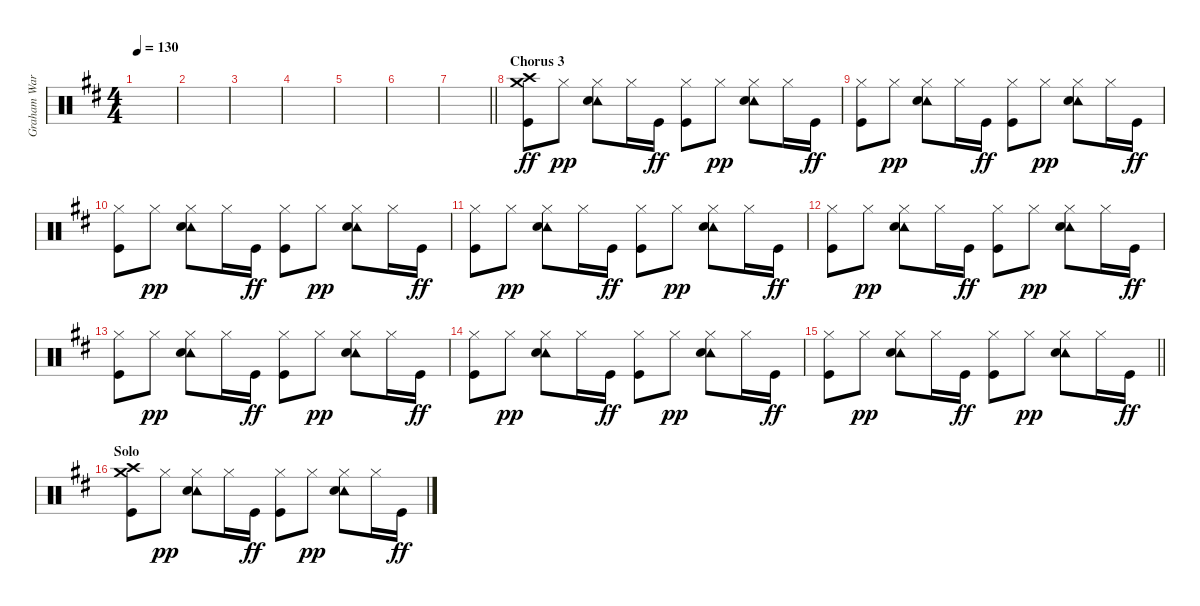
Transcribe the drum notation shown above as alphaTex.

\track ("Graham Ward (DRUMS)" "Graham War") {instrument percussion}
\staff {score}
\articulation defaults
\ts (4 4)
\tempo 130
\clef neutral
\ks d
|
|
|
|
|
|
\barLineRight lightlight
|
\section ("" "Chorus 3")
("Crash medium (hit)" "Crash high (hit)" "Kick (hit)").8{dy ff} "Hi-Hat (closed)".8{dy pp} ("Tambourine (hit)" "Snare (hit) 2" "Hi-Hat (closed)").8 "Hi-Hat (closed)".16 "Kick (hit)".16{dy ff} ("Hi-Hat (closed)" "Kick (hit)").8 "Hi-Hat (closed)".8{dy pp} ("Tambourine (hit)" "Snare (hit) 2" "Hi-Hat (closed)").8 "Hi-Hat (closed)".16 "Kick (hit)".16{dy ff} |
("Hi-Hat (closed)" "Kick (hit)").8 "Hi-Hat (closed)".8{dy pp} ("Tambourine (hit)" "Snare (hit) 2" "Hi-Hat (closed)").8 "Hi-Hat (closed)".16 "Kick (hit)".16{dy ff} ("Hi-Hat (closed)" "Kick (hit)").8 "Hi-Hat (closed)".8{dy pp} ("Tambourine (hit)" "Snare (hit) 2" "Hi-Hat (closed)").8 "Hi-Hat (closed)".16 "Kick (hit)".16{dy ff} |
("Hi-Hat (closed)" "Kick (hit)").8 "Hi-Hat (closed)".8{dy pp} ("Tambourine (hit)" "Snare (hit) 2" "Hi-Hat (closed)").8 "Hi-Hat (closed)".16 "Kick (hit)".16{dy ff} ("Hi-Hat (closed)" "Kick (hit)").8 "Hi-Hat (closed)".8{dy pp} ("Tambourine (hit)" "Snare (hit) 2" "Hi-Hat (closed)").8 "Hi-Hat (closed)".16 "Kick (hit)".16{dy ff} |
("Hi-Hat (closed)" "Kick (hit)").8 "Hi-Hat (closed)".8{dy pp} ("Tambourine (hit)" "Snare (hit) 2" "Hi-Hat (closed)").8 "Hi-Hat (closed)".16 "Kick (hit)".16{dy ff} ("Hi-Hat (closed)" "Kick (hit)").8 "Hi-Hat (closed)".8{dy pp} ("Tambourine (hit)" "Snare (hit) 2" "Hi-Hat (closed)").8 "Hi-Hat (closed)".16 "Kick (hit)".16{dy ff} |
("Hi-Hat (closed)" "Kick (hit)").8 "Hi-Hat (closed)".8{dy pp} ("Tambourine (hit)" "Snare (hit) 2" "Hi-Hat (closed)").8 "Hi-Hat (closed)".16 "Kick (hit)".16{dy ff} ("Hi-Hat (closed)" "Kick (hit)").8 "Hi-Hat (closed)".8{dy pp} ("Tambourine (hit)" "Snare (hit) 2" "Hi-Hat (closed)").8 "Hi-Hat (closed)".16 "Kick (hit)".16{dy ff} |
("Hi-Hat (closed)" "Kick (hit)").8 "Hi-Hat (closed)".8{dy pp} ("Tambourine (hit)" "Snare (hit) 2" "Hi-Hat (closed)").8 "Hi-Hat (closed)".16 "Kick (hit)".16{dy ff} ("Hi-Hat (closed)" "Kick (hit)").8 "Hi-Hat (closed)".8{dy pp} ("Tambourine (hit)" "Snare (hit) 2" "Hi-Hat (closed)").8 "Hi-Hat (closed)".16 "Kick (hit)".16{dy ff} |
("Hi-Hat (closed)" "Kick (hit)").8 "Hi-Hat (closed)".8{dy pp} ("Tambourine (hit)" "Snare (hit) 2" "Hi-Hat (closed)").8 "Hi-Hat (closed)".16 "Kick (hit)".16{dy ff} ("Hi-Hat (closed)" "Kick (hit)").8 "Hi-Hat (closed)".8{dy pp} ("Tambourine (hit)" "Snare (hit) 2" "Hi-Hat (closed)").8 "Hi-Hat (closed)".16 "Kick (hit)".16{dy ff} |
\barLineRight lightlight
("Hi-Hat (closed)" "Kick (hit)").8 "Hi-Hat (closed)".8{dy pp} ("Tambourine (hit)" "Snare (hit) 2" "Hi-Hat (closed)").8 "Hi-Hat (closed)".16 "Kick (hit)".16{dy ff} ("Hi-Hat (closed)" "Kick (hit)").8 "Hi-Hat (closed)".8{dy pp} ("Tambourine (hit)" "Snare (hit) 2" "Hi-Hat (closed)").8 "Hi-Hat (closed)".16 "Kick (hit)".16{dy ff} |
\section ("" "Solo")
("Crash medium (hit)" "Crash high (hit)" "Kick (hit)").8 "Hi-Hat (closed)".8{dy pp} ("Tambourine (hit)" "Snare (hit) 2" "Hi-Hat (closed)").8 "Hi-Hat (closed)".16 "Kick (hit)".16{dy ff} ("Hi-Hat (closed)" "Kick (hit)").8 "Hi-Hat (closed)".8{dy pp} ("Tambourine (hit)" "Snare (hit) 2" "Hi-Hat (closed)").8 "Hi-Hat (closed)".16 "Kick (hit)".16{dy ff}
